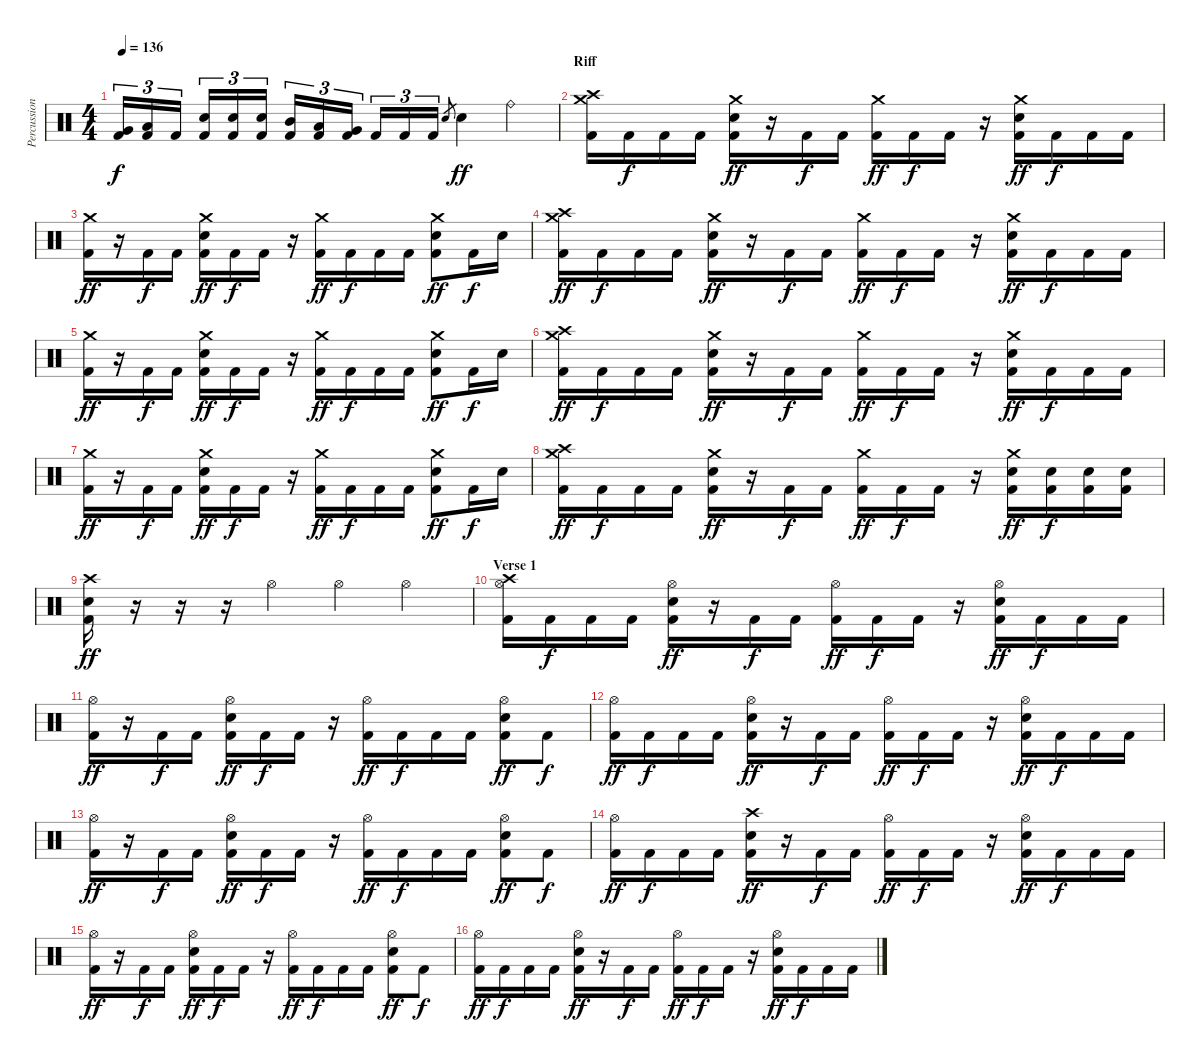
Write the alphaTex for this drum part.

\track ("Percussions" "Percussion") {instrument percussion}
\staff {score}
\articulation defaults
\ts (4 4)
\tempo 136
\clef neutral
\ks c
("Very Low Tom (hit)" "Kick (hit) 2").16{tu (3 2) dy f} ("Low Floor Tom (hit)" "Kick (hit) 2").16{tu (3 2)} "Kick (hit) 2".16{tu (3 2)} ("Electric Snare (hit)" "Kick (hit) 2").16{tu (3 2)} ("Electric Snare (hit)" "Kick (hit) 2").16{tu (3 2)} ("Electric Snare (hit)" "Kick (hit) 2").16{tu (3 2)} ("Mid Tom (hit)" "Kick (hit) 2").16{tu (3 2)} ("Low Tom (hit)" "Kick (hit) 2").16{tu (3 2)} ("Very Low Tom (hit)" "Kick (hit) 2").16{tu (3 2)} "Kick (hit) 2".16{tu (3 2)} "Kick (hit) 2".16{tu (3 2)} "Kick (hit) 2".16{tu (3 2)} "Electric Snare (hit)".8{gr} "Electric Snare (hit)".4{dy ff} "Ride (bell)".4 |
\section ("" "Riff")
("Crash high (hit)" "Crash medium (hit)" "Kick (hit) 2").16 "Kick (hit) 2".16{dy f} "Kick (hit) 2".16 "Kick (hit) 2".16 ("Crash medium (hit)" "Electric Snare (hit)" "Kick (hit) 2").16{dy ff} r.16 "Kick (hit) 2".16{dy f} "Kick (hit) 2".16 ("Crash medium (hit)" "Kick (hit) 2").16{dy ff} "Kick (hit) 2".16{dy f} "Kick (hit) 2".16 r.16 ("Crash medium (hit)" "Electric Snare (hit)" "Kick (hit) 2").16{dy ff} "Kick (hit) 2".16{dy f} "Kick (hit) 2".16 "Kick (hit) 2".16 |
("Crash medium (hit)" "Kick (hit) 2").16{dy ff} r.16 "Kick (hit) 2".16{dy f} "Kick (hit) 2".16 ("Crash medium (hit)" "Electric Snare (hit)" "Kick (hit) 2").16{dy ff} "Kick (hit) 2".16{dy f} "Kick (hit) 2".16 r.16 ("Crash medium (hit)" "Kick (hit) 2").16{dy ff} "Kick (hit) 2".16{dy f} "Kick (hit) 2".16 "Kick (hit) 2".16 ("Crash medium (hit)" "Electric Snare (hit)" "Kick (hit) 2").8{dy ff} "Kick (hit) 2".16{dy f} "Electric Snare (hit)".16 |
("Crash high (hit)" "Crash medium (hit)" "Kick (hit) 2").16{dy ff} "Kick (hit) 2".16{dy f} "Kick (hit) 2".16 "Kick (hit) 2".16 ("Crash medium (hit)" "Electric Snare (hit)" "Kick (hit) 2").16{dy ff} r.16 "Kick (hit) 2".16{dy f} "Kick (hit) 2".16 ("Crash medium (hit)" "Kick (hit) 2").16{dy ff} "Kick (hit) 2".16{dy f} "Kick (hit) 2".16 r.16 ("Crash medium (hit)" "Electric Snare (hit)" "Kick (hit) 2").16{dy ff} "Kick (hit) 2".16{dy f} "Kick (hit) 2".16 "Kick (hit) 2".16 |
("Crash medium (hit)" "Kick (hit) 2").16{dy ff} r.16 "Kick (hit) 2".16{dy f} "Kick (hit) 2".16 ("Crash medium (hit)" "Electric Snare (hit)" "Kick (hit) 2").16{dy ff} "Kick (hit) 2".16{dy f} "Kick (hit) 2".16 r.16 ("Crash medium (hit)" "Kick (hit) 2").16{dy ff} "Kick (hit) 2".16{dy f} "Kick (hit) 2".16 "Kick (hit) 2".16 ("Crash medium (hit)" "Electric Snare (hit)" "Kick (hit) 2").8{dy ff} "Kick (hit) 2".16{dy f} "Electric Snare (hit)".16 |
("Crash high (hit)" "Crash medium (hit)" "Kick (hit) 2").16{dy ff} "Kick (hit) 2".16{dy f} "Kick (hit) 2".16 "Kick (hit) 2".16 ("Crash medium (hit)" "Electric Snare (hit)" "Kick (hit) 2").16{dy ff} r.16 "Kick (hit) 2".16{dy f} "Kick (hit) 2".16 ("Crash medium (hit)" "Kick (hit) 2").16{dy ff} "Kick (hit) 2".16{dy f} "Kick (hit) 2".16 r.16 ("Crash medium (hit)" "Electric Snare (hit)" "Kick (hit) 2").16{dy ff} "Kick (hit) 2".16{dy f} "Kick (hit) 2".16 "Kick (hit) 2".16 |
("Crash medium (hit)" "Kick (hit) 2").16{dy ff} r.16 "Kick (hit) 2".16{dy f} "Kick (hit) 2".16 ("Crash medium (hit)" "Electric Snare (hit)" "Kick (hit) 2").16{dy ff} "Kick (hit) 2".16{dy f} "Kick (hit) 2".16 r.16 ("Crash medium (hit)" "Kick (hit) 2").16{dy ff} "Kick (hit) 2".16{dy f} "Kick (hit) 2".16 "Kick (hit) 2".16 ("Crash medium (hit)" "Electric Snare (hit)" "Kick (hit) 2").8{dy ff} "Kick (hit) 2".16{dy f} "Electric Snare (hit)".16 |
("Crash high (hit)" "Crash medium (hit)" "Kick (hit) 2").16{dy ff} "Kick (hit) 2".16{dy f} "Kick (hit) 2".16 "Kick (hit) 2".16 ("Crash medium (hit)" "Electric Snare (hit)" "Kick (hit) 2").16{dy ff} r.16 "Kick (hit) 2".16{dy f} "Kick (hit) 2".16 ("Crash medium (hit)" "Kick (hit) 2").16{dy ff} "Kick (hit) 2".16{dy f} "Kick (hit) 2".16 r.16 ("Crash medium (hit)" "Electric Snare (hit)" "Kick (hit) 2").16{dy ff} ("Electric Snare (hit)" "Kick (hit) 2").16{dy f} ("Electric Snare (hit)" "Kick (hit) 2").16 ("Electric Snare (hit)" "Kick (hit) 2").16 |
("Crash high (hit)" "Electric Snare (hit)" "Kick (hit) 2").16{dy ff} r.16 r.16 r.16 "Hi-Hat (open)".4 "Hi-Hat (open)".4 "Hi-Hat (open)".4 |
\section ("" "Verse 1")
("Crash high (hit)" "Hi-Hat (open)" "Kick (hit) 2").16 "Kick (hit) 2".16{dy f} "Kick (hit) 2".16 "Kick (hit) 2".16 ("Hi-Hat (open)" "Electric Snare (hit)" "Kick (hit) 2").16{dy ff} r.16 "Kick (hit) 2".16{dy f} "Kick (hit) 2".16 ("Hi-Hat (open)" "Kick (hit) 2").16{dy ff} "Kick (hit) 2".16{dy f} "Kick (hit) 2".16 r.16 ("Hi-Hat (open)" "Electric Snare (hit)" "Kick (hit) 2").16{dy ff} "Kick (hit) 2".16{dy f} "Kick (hit) 2".16 "Kick (hit) 2".16 |
("Hi-Hat (open)" "Kick (hit) 2").16{dy ff} r.16 "Kick (hit) 2".16{dy f} "Kick (hit) 2".16 ("Hi-Hat (open)" "Electric Snare (hit)" "Kick (hit) 2").16{dy ff} "Kick (hit) 2".16{dy f} "Kick (hit) 2".16 r.16 ("Hi-Hat (open)" "Kick (hit) 2").16{dy ff} "Kick (hit) 2".16{dy f} "Kick (hit) 2".16 "Kick (hit) 2".16 ("Hi-Hat (open)" "Electric Snare (hit)" "Kick (hit) 2").8{dy ff} "Kick (hit) 2".8{dy f} |
("Hi-Hat (open)" "Kick (hit) 2").16{dy ff} "Kick (hit) 2".16{dy f} "Kick (hit) 2".16 "Kick (hit) 2".16 ("Hi-Hat (open)" "Electric Snare (hit)" "Kick (hit) 2").16{dy ff} r.16 "Kick (hit) 2".16{dy f} "Kick (hit) 2".16 ("Hi-Hat (open)" "Kick (hit) 2").16{dy ff} "Kick (hit) 2".16{dy f} "Kick (hit) 2".16 r.16 ("Hi-Hat (open)" "Electric Snare (hit)" "Kick (hit) 2").16{dy ff} "Kick (hit) 2".16{dy f} "Kick (hit) 2".16 "Kick (hit) 2".16 |
("Hi-Hat (open)" "Kick (hit) 2").16{dy ff} r.16 "Kick (hit) 2".16{dy f} "Kick (hit) 2".16 ("Hi-Hat (open)" "Electric Snare (hit)" "Kick (hit) 2").16{dy ff} "Kick (hit) 2".16{dy f} "Kick (hit) 2".16 r.16 ("Hi-Hat (open)" "Kick (hit) 2").16{dy ff} "Kick (hit) 2".16{dy f} "Kick (hit) 2".16 "Kick (hit) 2".16 ("Hi-Hat (open)" "Electric Snare (hit)" "Kick (hit) 2").8{dy ff} "Kick (hit) 2".8{dy f} |
("Hi-Hat (open)" "Kick (hit) 2").16{dy ff} "Kick (hit) 2".16{dy f} "Kick (hit) 2".16 "Kick (hit) 2".16 ("Crash high (hit)" "Electric Snare (hit)" "Kick (hit) 2").16{dy ff} r.16 "Kick (hit) 2".16{dy f} "Kick (hit) 2".16 ("Hi-Hat (open)" "Kick (hit) 2").16{dy ff} "Kick (hit) 2".16{dy f} "Kick (hit) 2".16 r.16 ("Hi-Hat (open)" "Electric Snare (hit)" "Kick (hit) 2").16{dy ff} "Kick (hit) 2".16{dy f} "Kick (hit) 2".16 "Kick (hit) 2".16 |
("Hi-Hat (open)" "Kick (hit) 2").16{dy ff} r.16 "Kick (hit) 2".16{dy f} "Kick (hit) 2".16 ("Hi-Hat (open)" "Electric Snare (hit)" "Kick (hit) 2").16{dy ff} "Kick (hit) 2".16{dy f} "Kick (hit) 2".16 r.16 ("Hi-Hat (open)" "Kick (hit) 2").16{dy ff} "Kick (hit) 2".16{dy f} "Kick (hit) 2".16 "Kick (hit) 2".16 ("Hi-Hat (open)" "Electric Snare (hit)" "Kick (hit) 2").8{dy ff} "Kick (hit) 2".8{dy f} |
("Hi-Hat (open)" "Kick (hit) 2").16{dy ff} "Kick (hit) 2".16{dy f} "Kick (hit) 2".16 "Kick (hit) 2".16 ("Hi-Hat (open)" "Electric Snare (hit)" "Kick (hit) 2").16{dy ff} r.16 "Kick (hit) 2".16{dy f} "Kick (hit) 2".16 ("Hi-Hat (open)" "Kick (hit) 2").16{dy ff} "Kick (hit) 2".16{dy f} "Kick (hit) 2".16 r.16 ("Hi-Hat (open)" "Electric Snare (hit)" "Kick (hit) 2").16{dy ff} "Kick (hit) 2".16{dy f} "Kick (hit) 2".16 "Kick (hit) 2".16
